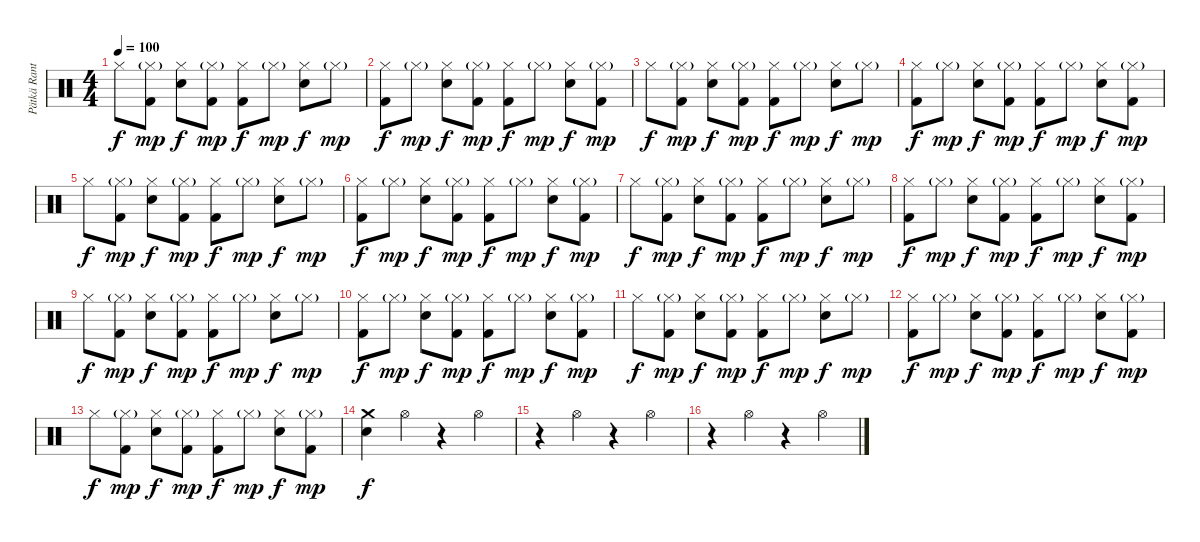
\track ("Pätkä Rantala (Drums)" "Pätkä Rant") {instrument percussion}
\staff {score}
\articulation defaults
\ts (4 4)
\tempo 100
\clef neutral
\ks c "Hi-Hat (closed)".8{dy f}
("Hi-Hat (closed)"{g} "Kick (hit) 2").8{dy mp} ("Hi-Hat (closed)" "Snare (hit) 2").8{dy f} ("Hi-Hat (closed)"{g} "Kick (hit) 2").8{dy mp} ("Hi-Hat (closed)" "Kick (hit) 2").8{dy f} "Hi-Hat (closed)"{g}.8{dy mp} ("Hi-Hat (closed)" "Snare (hit) 2").8{dy f} "Hi-Hat (closed)"{g}.8{dy mp} |
("Hi-Hat (closed)" "Kick (hit) 2").8{dy f} "Hi-Hat (closed)"{g}.8{dy mp} ("Hi-Hat (closed)" "Snare (hit) 2").8{dy f} ("Hi-Hat (closed)"{g} "Kick (hit) 2").8{dy mp} ("Hi-Hat (closed)" "Kick (hit) 2").8{dy f} "Hi-Hat (closed)"{g}.8{dy mp} ("Hi-Hat (closed)" "Snare (hit) 2").8{dy f} ("Hi-Hat (closed)"{g} "Kick (hit) 2").8{dy mp} |
"Hi-Hat (closed)".8{dy f} ("Hi-Hat (closed)"{g} "Kick (hit) 2").8{dy mp} ("Hi-Hat (closed)" "Snare (hit) 2").8{dy f} ("Hi-Hat (closed)"{g} "Kick (hit) 2").8{dy mp} ("Hi-Hat (closed)" "Kick (hit) 2").8{dy f} "Hi-Hat (closed)"{g}.8{dy mp} ("Hi-Hat (closed)" "Snare (hit) 2").8{dy f} "Hi-Hat (closed)"{g}.8{dy mp} |
("Hi-Hat (closed)" "Kick (hit) 2").8{dy f} "Hi-Hat (closed)"{g}.8{dy mp} ("Hi-Hat (closed)" "Snare (hit) 2").8{dy f} ("Hi-Hat (closed)"{g} "Kick (hit) 2").8{dy mp} ("Hi-Hat (closed)" "Kick (hit) 2").8{dy f} "Hi-Hat (closed)"{g}.8{dy mp} ("Hi-Hat (closed)" "Snare (hit) 2").8{dy f} ("Hi-Hat (closed)"{g} "Kick (hit) 2").8{dy mp} |
"Hi-Hat (closed)".8{dy f} ("Hi-Hat (closed)"{g} "Kick (hit) 2").8{dy mp} ("Hi-Hat (closed)" "Snare (hit) 2").8{dy f} ("Hi-Hat (closed)"{g} "Kick (hit) 2").8{dy mp} ("Hi-Hat (closed)" "Kick (hit) 2").8{dy f} "Hi-Hat (closed)"{g}.8{dy mp} ("Hi-Hat (closed)" "Snare (hit) 2").8{dy f} "Hi-Hat (closed)"{g}.8{dy mp} |
("Hi-Hat (closed)" "Kick (hit) 2").8{dy f} "Hi-Hat (closed)"{g}.8{dy mp} ("Hi-Hat (closed)" "Snare (hit) 2").8{dy f} ("Hi-Hat (closed)"{g} "Kick (hit) 2").8{dy mp} ("Hi-Hat (closed)" "Kick (hit) 2").8{dy f} "Hi-Hat (closed)"{g}.8{dy mp} ("Hi-Hat (closed)" "Snare (hit) 2").8{dy f} ("Hi-Hat (closed)"{g} "Kick (hit) 2").8{dy mp} |
"Hi-Hat (closed)".8{dy f} ("Hi-Hat (closed)"{g} "Kick (hit) 2").8{dy mp} ("Hi-Hat (closed)" "Snare (hit) 2").8{dy f} ("Hi-Hat (closed)"{g} "Kick (hit) 2").8{dy mp} ("Hi-Hat (closed)" "Kick (hit) 2").8{dy f} "Hi-Hat (closed)"{g}.8{dy mp} ("Hi-Hat (closed)" "Snare (hit) 2").8{dy f} "Hi-Hat (closed)"{g}.8{dy mp} |
("Hi-Hat (closed)" "Kick (hit) 2").8{dy f} "Hi-Hat (closed)"{g}.8{dy mp} ("Hi-Hat (closed)" "Snare (hit) 2").8{dy f} ("Hi-Hat (closed)"{g} "Kick (hit) 2").8{dy mp} ("Hi-Hat (closed)" "Kick (hit) 2").8{dy f} "Hi-Hat (closed)"{g}.8{dy mp} ("Hi-Hat (closed)" "Snare (hit) 2").8{dy f} ("Hi-Hat (closed)"{g} "Kick (hit) 2").8{dy mp} |
"Hi-Hat (closed)".8{dy f} ("Hi-Hat (closed)"{g} "Kick (hit) 2").8{dy mp} ("Hi-Hat (closed)" "Snare (hit) 2").8{dy f} ("Hi-Hat (closed)"{g} "Kick (hit) 2").8{dy mp} ("Hi-Hat (closed)" "Kick (hit) 2").8{dy f} "Hi-Hat (closed)"{g}.8{dy mp} ("Hi-Hat (closed)" "Snare (hit) 2").8{dy f} "Hi-Hat (closed)"{g}.8{dy mp} |
("Hi-Hat (closed)" "Kick (hit) 2").8{dy f} "Hi-Hat (closed)"{g}.8{dy mp} ("Hi-Hat (closed)" "Snare (hit) 2").8{dy f} ("Hi-Hat (closed)"{g} "Kick (hit) 2").8{dy mp} ("Hi-Hat (closed)" "Kick (hit) 2").8{dy f} "Hi-Hat (closed)"{g}.8{dy mp} ("Hi-Hat (closed)" "Snare (hit) 2").8{dy f} ("Hi-Hat (closed)"{g} "Kick (hit) 2").8{dy mp} |
"Hi-Hat (closed)".8{dy f} ("Hi-Hat (closed)"{g} "Kick (hit) 2").8{dy mp} ("Hi-Hat (closed)" "Snare (hit) 2").8{dy f} ("Hi-Hat (closed)"{g} "Kick (hit) 2").8{dy mp} ("Hi-Hat (closed)" "Kick (hit) 2").8{dy f} "Hi-Hat (closed)"{g}.8{dy mp} ("Hi-Hat (closed)" "Snare (hit) 2").8{dy f} "Hi-Hat (closed)"{g}.8{dy mp} |
("Hi-Hat (closed)" "Kick (hit) 2").8{dy f} "Hi-Hat (closed)"{g}.8{dy mp} ("Hi-Hat (closed)" "Snare (hit) 2").8{dy f} ("Hi-Hat (closed)"{g} "Kick (hit) 2").8{dy mp} ("Hi-Hat (closed)" "Kick (hit) 2").8{dy f} "Hi-Hat (closed)"{g}.8{dy mp} ("Hi-Hat (closed)" "Snare (hit) 2").8{dy f} ("Hi-Hat (closed)"{g} "Kick (hit) 2").8{dy mp} |
"Hi-Hat (closed)".8{dy f} ("Hi-Hat (closed)"{g} "Kick (hit) 2").8{dy mp} ("Hi-Hat (closed)" "Snare (hit) 2").8{dy f} ("Hi-Hat (closed)"{g} "Kick (hit) 2").8{dy mp} ("Hi-Hat (closed)" "Kick (hit) 2").8{dy f} "Hi-Hat (closed)"{g}.8{dy mp} ("Hi-Hat (closed)" "Snare (hit) 2").8{dy f} ("Hi-Hat (closed)"{g} "Kick (hit) 2").8{dy mp} |
("Crash medium (hit)" "Snare (hit) 2").4{dy f} "Hi-Hat (open)".4 r.4 "Hi-Hat (open)".4 |
r.4 "Hi-Hat (open)".4 r.4 "Hi-Hat (open)".4 |
r.4 "Hi-Hat (open)".4 r.4 "Hi-Hat (open)".4
